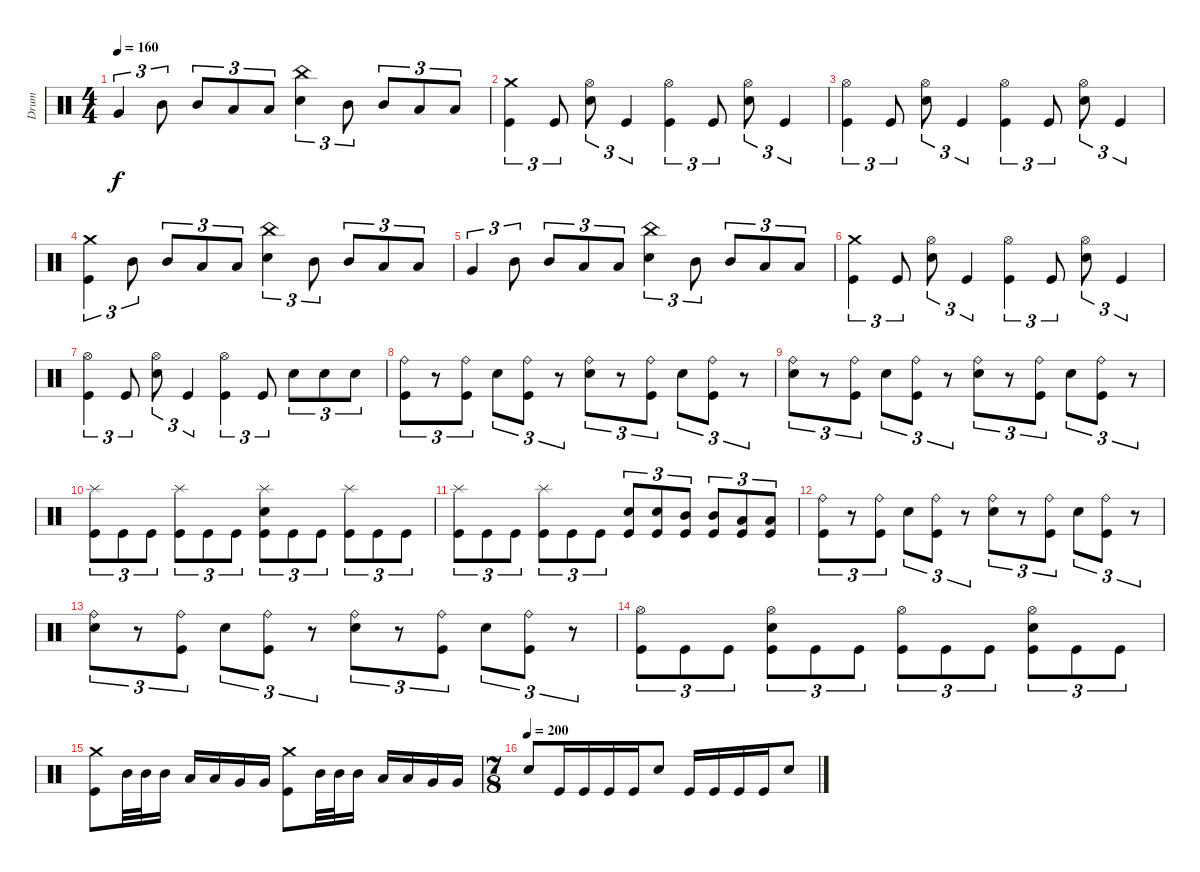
\track ("Drum" "Drum") {instrument percussion}
\staff {score}
\articulation defaults
\ts (4 4)
\tempo 160
\clef neutral
\ks c "Very Low Tom (hit)".4{tu (3 2) dy f} "Mid Tom (hit)".8{tu (3 2)} "Mid Tom (hit)".8{tu (3 2)} "Low Tom (hit)".8{tu (3 2)} "Low Tom (hit)".8{tu (3 2)}
("Electric Snare (hit)" "China (hit)").4{tu (3 2)} "Mid Tom (hit)".8{tu (3 2)} "Mid Tom (hit)".8{tu (3 2)} "Low Tom (hit)".8{tu (3 2)} "Low Tom (hit)".8{tu (3 2)} |
("Kick (hit)" "Crash medium (hit)").4{tu (3 2)} "Kick (hit)".8{tu (3 2)} ("Electric Snare (hit)" "Hi-Hat (open)").8{tu (3 2)} "Kick (hit)".4{tu (3 2)} ("Kick (hit)" "Hi-Hat (open)").4{tu (3 2)} "Kick (hit)".8{tu (3 2)} ("Electric Snare (hit)" "Hi-Hat (open)").8{tu (3 2)} "Kick (hit)".4{tu (3 2)} |
("Kick (hit)" "Hi-Hat (open)").4{tu (3 2)} "Kick (hit)".8{tu (3 2)} ("Electric Snare (hit)" "Hi-Hat (open)").8{tu (3 2)} "Kick (hit)".4{tu (3 2)} ("Kick (hit)" "Hi-Hat (open)").4{tu (3 2)} "Kick (hit)".8{tu (3 2)} ("Electric Snare (hit)" "Hi-Hat (open)").8{tu (3 2)} "Kick (hit)".4{tu (3 2)} |
("Kick (hit)" "Crash medium (hit)").4{tu (3 2)} "Mid Tom (hit)".8{tu (3 2)} "Mid Tom (hit)".8{tu (3 2)} "Low Tom (hit)".8{tu (3 2)} "Low Tom (hit)".8{tu (3 2)} ("Electric Snare (hit)" "China (hit)").4{tu (3 2)} "Mid Tom (hit)".8{tu (3 2)} "Mid Tom (hit)".8{tu (3 2)} "Low Tom (hit)".8{tu (3 2)} "Low Tom (hit)".8{tu (3 2)} |
"Very Low Tom (hit)".4{tu (3 2)} "Mid Tom (hit)".8{tu (3 2)} "Mid Tom (hit)".8{tu (3 2)} "Low Tom (hit)".8{tu (3 2)} "Low Tom (hit)".8{tu (3 2)} ("Electric Snare (hit)" "China (hit)").4{tu (3 2)} "Mid Tom (hit)".8{tu (3 2)} "Mid Tom (hit)".8{tu (3 2)} "Low Tom (hit)".8{tu (3 2)} "Low Tom (hit)".8{tu (3 2)} |
("Kick (hit)" "Crash medium (hit)").4{tu (3 2)} "Kick (hit)".8{tu (3 2)} ("Electric Snare (hit)" "Hi-Hat (open)").8{tu (3 2)} "Kick (hit)".4{tu (3 2)} ("Kick (hit)" "Hi-Hat (open)").4{tu (3 2)} "Kick (hit)".8{tu (3 2)} ("Electric Snare (hit)" "Hi-Hat (open)").8{tu (3 2)} "Kick (hit)".4{tu (3 2)} |
("Kick (hit)" "Hi-Hat (open)").4{tu (3 2)} "Kick (hit)".8{tu (3 2)} ("Electric Snare (hit)" "Hi-Hat (open)").8{tu (3 2)} "Kick (hit)".4{tu (3 2)} ("Kick (hit)" "Hi-Hat (open)").4{tu (3 2)} "Kick (hit)".8{tu (3 2)} "Electric Snare (hit)".8{tu (3 2)} "Electric Snare (hit)".8{tu (3 2)} "Electric Snare (hit)".8{tu (3 2)} |
("Kick (hit)" "Ride (bell)").8{tu (3 2)} r.8{tu (3 2)} ("Kick (hit)" "Ride (bell)").8{tu (3 2)} "Electric Snare (hit)".8{tu (3 2)} ("Kick (hit)" "Ride (bell)").8{tu (3 2)} r.8{tu (3 2)} ("Electric Snare (hit)" "Ride (bell)").8{tu (3 2)} r.8{tu (3 2)} ("Kick (hit)" "Ride (bell)").8{tu (3 2)} "Electric Snare (hit)".8{tu (3 2)} ("Kick (hit)" "Ride (bell)").8{tu (3 2)} r.8{tu (3 2)} |
("Electric Snare (hit)" "Ride (bell)").8{tu (3 2)} r.8{tu (3 2)} ("Kick (hit)" "Ride (bell)").8{tu (3 2)} "Electric Snare (hit)".8{tu (3 2)} ("Kick (hit)" "Ride (bell)").8{tu (3 2)} r.8{tu (3 2)} ("Electric Snare (hit)" "Ride (bell)").8{tu (3 2)} r.8{tu (3 2)} ("Kick (hit)" "Ride (bell)").8{tu (3 2)} "Electric Snare (hit)".8{tu (3 2)} ("Kick (hit)" "Ride (bell)").8{tu (3 2)} r.8{tu (3 2)} |
("Kick (hit)" "Splash (hit)").8{tu (3 2)} "Kick (hit)".8{tu (3 2)} "Kick (hit)".8{tu (3 2)} ("Kick (hit)" "Splash (hit)").8{tu (3 2)} "Kick (hit)".8{tu (3 2)} "Kick (hit)".8{tu (3 2)} ("Kick (hit)" "Electric Snare (hit)" "Splash (hit)").8{tu (3 2)} "Kick (hit)".8{tu (3 2)} "Kick (hit)".8{tu (3 2)} ("Kick (hit)" "Splash (hit)").8{tu (3 2)} "Kick (hit)".8{tu (3 2)} "Kick (hit)".8{tu (3 2)} |
("Kick (hit)" "Splash (hit)").8{tu (3 2)} "Kick (hit)".8{tu (3 2)} "Kick (hit)".8{tu (3 2)} ("Kick (hit)" "Splash (hit)").8{tu (3 2)} "Kick (hit)".8{tu (3 2)} "Kick (hit)".8{tu (3 2)} ("Kick (hit)" "Electric Snare (hit)").8{tu (3 2)} ("Kick (hit)" "Electric Snare (hit)").8{tu (3 2)} ("Kick (hit)" "Mid Tom (hit)").8{tu (3 2)} ("Kick (hit)" "Mid Tom (hit)").8{tu (3 2)} ("Kick (hit)" "Low Tom (hit)").8{tu (3 2)} ("Kick (hit)" "Low Tom (hit)").8{tu (3 2)} |
("Kick (hit)" "Ride (bell)").8{tu (3 2)} r.8{tu (3 2)} ("Kick (hit)" "Ride (bell)").8{tu (3 2)} "Electric Snare (hit)".8{tu (3 2)} ("Kick (hit)" "Ride (bell)").8{tu (3 2)} r.8{tu (3 2)} ("Electric Snare (hit)" "Ride (bell)").8{tu (3 2)} r.8{tu (3 2)} ("Kick (hit)" "Ride (bell)").8{tu (3 2)} "Electric Snare (hit)".8{tu (3 2)} ("Kick (hit)" "Ride (bell)").8{tu (3 2)} r.8{tu (3 2)} |
("Electric Snare (hit)" "Ride (bell)").8{tu (3 2)} r.8{tu (3 2)} ("Kick (hit)" "Ride (bell)").8{tu (3 2)} "Electric Snare (hit)".8{tu (3 2)} ("Kick (hit)" "Ride (bell)").8{tu (3 2)} r.8{tu (3 2)} ("Electric Snare (hit)" "Ride (bell)").8{tu (3 2)} r.8{tu (3 2)} ("Kick (hit)" "Ride (bell)").8{tu (3 2)} "Electric Snare (hit)".8{tu (3 2)} ("Kick (hit)" "Ride (bell)").8{tu (3 2)} r.8{tu (3 2)} |
("Kick (hit)" "Hi-Hat (open)").8{tu (3 2)} "Kick (hit)".8{tu (3 2)} "Kick (hit)".8{tu (3 2)} ("Kick (hit)" "Electric Snare (hit)" "Hi-Hat (open)").8{tu (3 2)} "Kick (hit)".8{tu (3 2)} "Kick (hit)".8{tu (3 2)} ("Kick (hit)" "Hi-Hat (open)").8{tu (3 2)} "Kick (hit)".8{tu (3 2)} "Kick (hit)".8{tu (3 2)} ("Kick (hit)" "Electric Snare (hit)" "Hi-Hat (open)").8{tu (3 2)} "Kick (hit)".8{tu (3 2)} "Kick (hit)".8{tu (3 2)} |
("Kick (hit)" "Crash medium (hit)").8 "Mid Tom (hit)".32 "Mid Tom (hit)".32 "Mid Tom (hit)".16 "Low Tom (hit)".16 "Low Tom (hit)".16 "Very Low Tom (hit)".16 "Very Low Tom (hit)".16 ("Kick (hit)" "Crash medium (hit)").8 "Mid Tom (hit)".32 "Mid Tom (hit)".32 "Mid Tom (hit)".16 "Low Tom (hit)".16 "Low Tom (hit)".16 "Very Low Tom (hit)".16 "Very Low Tom (hit)".16 |
\ts (7 8)
\tempo (200)
"Electric Snare (hit)".8 "Kick (hit)".16 "Kick (hit)".16 "Kick (hit)".16 "Kick (hit)".16 "Electric Snare (hit)".8 "Kick (hit)".16 "Kick (hit)".16 "Kick (hit)".16 "Kick (hit)".16 "Electric Snare (hit)".8
